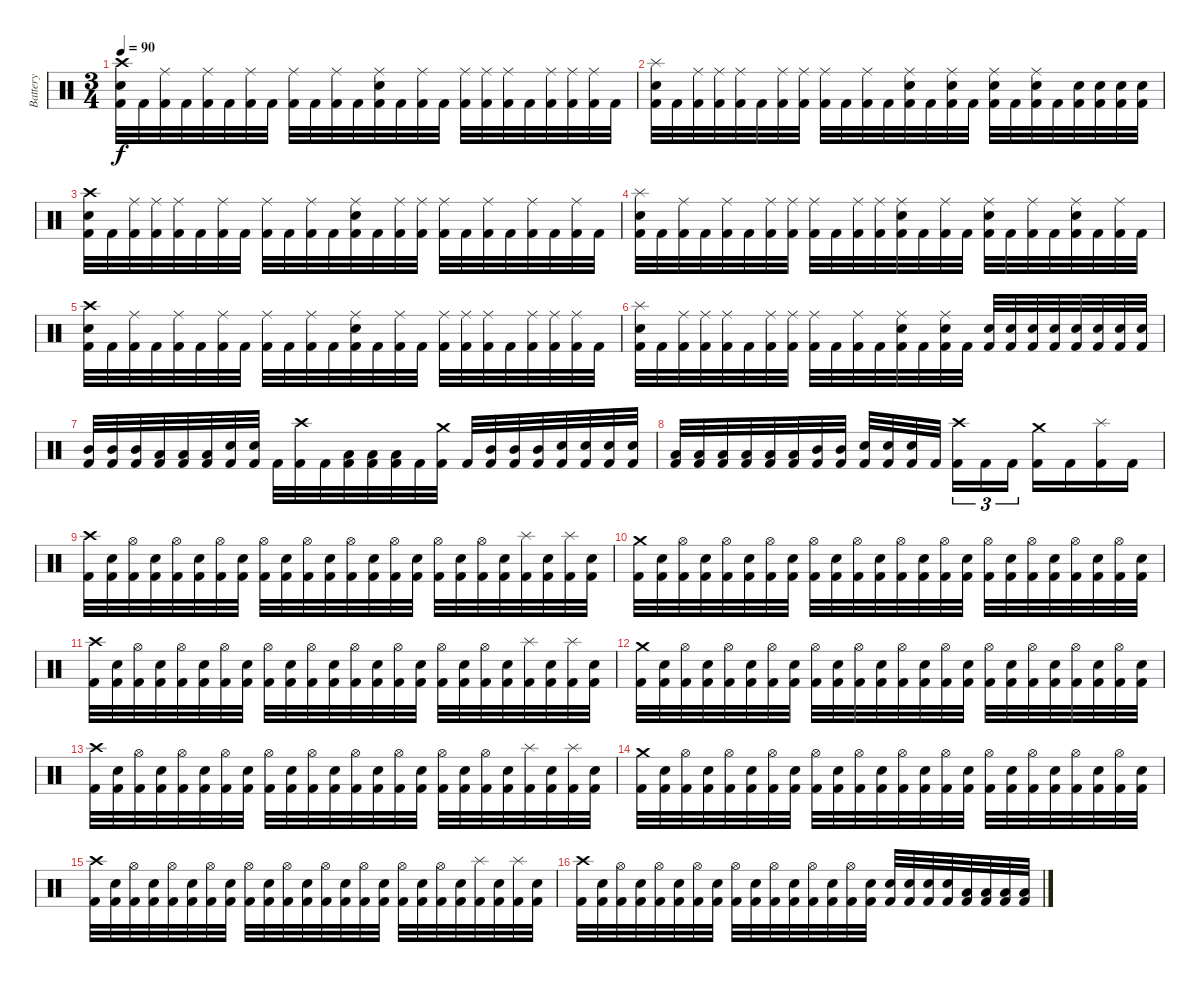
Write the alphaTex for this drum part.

\track ("Battery" "Battery") {instrument percussion}
\staff {score}
\articulation defaults
\ts (3 4)
\tempo 90
\clef neutral
\ks c
("Kick (hit) 2" "Snare (hit) 2" "Crash high (hit)").32{dy f} "Kick (hit) 2".32 ("Kick (hit) 2" "Ride (middle)").32 "Kick (hit) 2".32 ("Kick (hit) 2" "Ride (middle)").32 "Kick (hit) 2".32 ("Kick (hit) 2" "Ride (middle)").32 "Kick (hit) 2".32 ("Kick (hit) 2" "Ride (middle)").32 "Kick (hit) 2".32 ("Kick (hit) 2" "Ride (middle)").32 "Kick (hit) 2".32 ("Kick (hit) 2" "Snare (hit) 2" "Ride (middle)").32 "Kick (hit) 2".32 ("Kick (hit) 2" "Ride (middle)").32 "Kick (hit) 2".32 ("Kick (hit) 2" "Ride (middle)").32 ("Kick (hit) 2" "Ride (middle)").32 ("Kick (hit) 2" "Ride (middle)").32 "Kick (hit) 2".32 ("Kick (hit) 2" "Ride (middle)").32 ("Kick (hit) 2" "Ride (middle)").32 ("Kick (hit) 2" "Ride (middle)").32 "Kick (hit) 2".32 |
("Kick (hit) 2" "Snare (hit) 2" "Splash (hit)").32 "Kick (hit) 2".32 ("Kick (hit) 2" "Ride (middle)").32 ("Kick (hit) 2" "Ride (middle)").32 ("Kick (hit) 2" "Ride (middle)").32 "Kick (hit) 2".32 ("Kick (hit) 2" "Ride (middle)").32 ("Kick (hit) 2" "Ride (middle)").32 ("Kick (hit) 2" "Ride (middle)").32 "Kick (hit) 2".32 ("Kick (hit) 2" "Ride (middle)").32 "Kick (hit) 2".32 ("Kick (hit) 2" "Snare (hit) 2" "Ride (middle)").32 "Kick (hit) 2".32 ("Kick (hit) 2" "Snare (hit) 2" "Ride (middle)").32 "Kick (hit) 2".32 ("Kick (hit) 2" "Snare (hit) 2" "Ride (middle)").32 "Kick (hit) 2".32 ("Kick (hit) 2" "Snare (hit) 2" "Ride (middle)").32 "Kick (hit) 2".32 ("Kick (hit) 2" "Snare (hit) 2").32 ("Kick (hit) 2" "Snare (hit) 2").32 ("Kick (hit) 2" "Snare (hit) 2").32 ("Kick (hit) 2" "Snare (hit) 2").32 |
("Kick (hit) 2" "Snare (hit) 2" "Crash high (hit)").32 "Kick (hit) 2".32 ("Kick (hit) 2" "Ride (middle)").32 ("Kick (hit) 2" "Ride (middle)").32 ("Kick (hit) 2" "Ride (middle)").32 "Kick (hit) 2".32 ("Kick (hit) 2" "Ride (middle)").32 "Kick (hit) 2".32 ("Kick (hit) 2" "Ride (middle)").32 "Kick (hit) 2".32 ("Kick (hit) 2" "Ride (middle)").32 "Kick (hit) 2".32 ("Kick (hit) 2" "Snare (hit) 2" "Ride (middle)").32 "Kick (hit) 2".32 ("Kick (hit) 2" "Ride (middle)").32 ("Kick (hit) 2" "Ride (middle)").32 ("Kick (hit) 2" "Ride (middle)").32 "Kick (hit) 2".32 ("Kick (hit) 2" "Ride (middle)").32 "Kick (hit) 2".32 ("Kick (hit) 2" "Ride (middle)").32 "Kick (hit) 2".32 ("Kick (hit) 2" "Ride (middle)").32 "Kick (hit) 2".32 |
("Kick (hit) 2" "Snare (hit) 2" "Splash (hit)").32 "Kick (hit) 2".32 ("Kick (hit) 2" "Ride (middle)").32 "Kick (hit) 2".32 ("Kick (hit) 2" "Ride (middle)").32 "Kick (hit) 2".32 ("Kick (hit) 2" "Ride (middle)").32 ("Kick (hit) 2" "Ride (middle)").32 ("Kick (hit) 2" "Ride (middle)").32 "Kick (hit) 2".32 ("Kick (hit) 2" "Ride (middle)").32 ("Kick (hit) 2" "Ride (middle)").32 ("Kick (hit) 2" "Snare (hit) 2" "Ride (middle)").32 "Kick (hit) 2".32 ("Kick (hit) 2" "Ride (middle)").32 "Kick (hit) 2".32 ("Kick (hit) 2" "Snare (hit) 2" "Ride (middle)").32 "Kick (hit) 2".32 ("Kick (hit) 2" "Ride (middle)").32 "Kick (hit) 2".32 ("Kick (hit) 2" "Snare (hit) 2" "Ride (middle)").32 "Kick (hit) 2".32 ("Kick (hit) 2" "Ride (middle)").32 "Kick (hit) 2".32 |
("Kick (hit) 2" "Snare (hit) 2" "Crash high (hit)").32 "Kick (hit) 2".32 ("Kick (hit) 2" "Ride (middle)").32 "Kick (hit) 2".32 ("Kick (hit) 2" "Ride (middle)").32 "Kick (hit) 2".32 ("Kick (hit) 2" "Ride (middle)").32 "Kick (hit) 2".32 ("Kick (hit) 2" "Ride (middle)").32 "Kick (hit) 2".32 ("Kick (hit) 2" "Ride (middle)").32 "Kick (hit) 2".32 ("Kick (hit) 2" "Snare (hit) 2" "Ride (middle)").32 "Kick (hit) 2".32 ("Kick (hit) 2" "Ride (middle)").32 "Kick (hit) 2".32 ("Kick (hit) 2" "Ride (middle)").32 ("Kick (hit) 2" "Ride (middle)").32 ("Kick (hit) 2" "Ride (middle)").32 "Kick (hit) 2".32 ("Kick (hit) 2" "Ride (middle)").32 ("Kick (hit) 2" "Ride (middle)").32 ("Kick (hit) 2" "Ride (middle)").32 "Kick (hit) 2".32 |
("Kick (hit) 2" "Snare (hit) 2" "Splash (hit)").32 "Kick (hit) 2".32 ("Kick (hit) 2" "Ride (middle)").32 ("Kick (hit) 2" "Ride (middle)").32 ("Kick (hit) 2" "Ride (middle)").32 "Kick (hit) 2".32 ("Kick (hit) 2" "Ride (middle)").32 ("Kick (hit) 2" "Ride (middle)").32 ("Kick (hit) 2" "Ride (middle)").32 "Kick (hit) 2".32 ("Kick (hit) 2" "Ride (middle)").32 "Kick (hit) 2".32 ("Kick (hit) 2" "Snare (hit) 2" "Ride (middle)").32 "Kick (hit) 2".32 ("Kick (hit) 2" "Snare (hit) 2" "Ride (middle)").32 "Kick (hit) 2".32 ("Kick (hit) 2" "Snare (hit) 2").32 ("Kick (hit) 2" "Snare (hit) 2").32 ("Kick (hit) 2" "Snare (hit) 2").32 ("Kick (hit) 2" "Snare (hit) 2").32 ("Kick (hit) 2" "Snare (hit) 2").32 ("Kick (hit) 2" "Snare (hit) 2").32 ("Kick (hit) 2" "Snare (hit) 2").32 ("Kick (hit) 2" "Snare (hit) 2").32 |
("Kick (hit) 2" "Mid Tom (hit)").32 ("Kick (hit) 2" "Mid Tom (hit)").32 ("Kick (hit) 2" "Mid Tom (hit)").32 ("Kick (hit) 2" "Low Tom (hit)").32 ("Kick (hit) 2" "Low Tom (hit)").32 ("Kick (hit) 2" "Low Tom (hit)").32 ("Kick (hit) 2" "Snare (hit) 2").32 ("Kick (hit) 2" "Snare (hit) 2").32 "Kick (hit) 2".32 ("Kick (hit) 2" "Crash high (hit)").32 "Kick (hit) 2".32 ("Kick (hit) 2" "Low Tom (hit)").32 ("Kick (hit) 2" "Low Tom (hit)").32 ("Kick (hit) 2" "Low Tom (hit)").32 "Kick (hit) 2".32 ("Kick (hit) 2" "Crash medium (hit)").32 "Kick (hit) 2".32 ("Kick (hit) 2" "Mid Tom (hit)").32 ("Kick (hit) 2" "Mid Tom (hit)").32 ("Kick (hit) 2" "Mid Tom (hit)").32 ("Kick (hit) 2" "Snare (hit) 2").32 ("Kick (hit) 2" "Snare (hit) 2").32 ("Kick (hit) 2" "Snare (hit) 2").32 ("Kick (hit) 2" "Snare (hit) 2").32 |
("Kick (hit) 2" "Low Tom (hit)").32 ("Kick (hit) 2" "Low Tom (hit)").32 ("Kick (hit) 2" "Low Tom (hit)").32 ("Kick (hit) 2" "Low Tom (hit)").32 ("Kick (hit) 2" "Low Tom (hit)").32 ("Kick (hit) 2" "Low Tom (hit)").32 ("Kick (hit) 2" "Mid Tom (hit)").32 ("Kick (hit) 2" "Mid Tom (hit)").32 ("Kick (hit) 2" "Snare (hit) 2").32 ("Kick (hit) 2" "Snare (hit) 2").32 ("Kick (hit) 2" "Snare (hit) 2").32 "Kick (hit) 2".32 ("Kick (hit) 2" "Crash high (hit)").16{tu (3 2)} "Kick (hit) 2".16{tu (3 2)} "Kick (hit) 2".16{tu (3 2)} ("Kick (hit) 2" "Crash medium (hit)").16 "Kick (hit) 2".16 ("Kick (hit) 2" "Splash (hit)").16 "Kick (hit) 2".16 |
("Kick (hit) 2" "Crash high (hit)").32 ("Kick (hit) 2" "Snare (hit) 2").32 ("Kick (hit) 2" "Hi-Hat (open)").32 ("Kick (hit) 2" "Snare (hit) 2").32 ("Kick (hit) 2" "Hi-Hat (open)").32 ("Kick (hit) 2" "Snare (hit) 2").32 ("Kick (hit) 2" "Hi-Hat (open)").32 ("Kick (hit) 2" "Snare (hit) 2").32 ("Kick (hit) 2" "Hi-Hat (open)").32 ("Kick (hit) 2" "Snare (hit) 2").32 ("Kick (hit) 2" "Hi-Hat (open)").32 ("Kick (hit) 2" "Snare (hit) 2").32 ("Kick (hit) 2" "Hi-Hat (open)").32 ("Kick (hit) 2" "Snare (hit) 2").32 ("Kick (hit) 2" "Hi-Hat (open)").32 ("Kick (hit) 2" "Snare (hit) 2").32 ("Kick (hit) 2" "Hi-Hat (open)").32 ("Kick (hit) 2" "Snare (hit) 2").32 ("Kick (hit) 2" "Hi-Hat (open)").32 ("Kick (hit) 2" "Snare (hit) 2").32 ("Kick (hit) 2" "Splash (hit)").32 ("Kick (hit) 2" "Snare (hit) 2").32 ("Kick (hit) 2" "Splash (hit)").32 ("Kick (hit) 2" "Snare (hit) 2").32 |
("Kick (hit) 2" "Crash medium (hit)").32 ("Kick (hit) 2" "Snare (hit) 2").32 ("Kick (hit) 2" "Hi-Hat (open)").32 ("Kick (hit) 2" "Snare (hit) 2").32 ("Kick (hit) 2" "Hi-Hat (open)").32 ("Kick (hit) 2" "Snare (hit) 2").32 ("Kick (hit) 2" "Hi-Hat (open)").32 ("Kick (hit) 2" "Snare (hit) 2").32 ("Kick (hit) 2" "Hi-Hat (open)").32 ("Kick (hit) 2" "Snare (hit) 2").32 ("Kick (hit) 2" "Hi-Hat (open)").32 ("Kick (hit) 2" "Snare (hit) 2").32 ("Kick (hit) 2" "Hi-Hat (open)").32 ("Kick (hit) 2" "Snare (hit) 2").32 ("Kick (hit) 2" "Hi-Hat (open)").32 ("Kick (hit) 2" "Snare (hit) 2").32 ("Kick (hit) 2" "Hi-Hat (open)").32 ("Kick (hit) 2" "Snare (hit) 2").32 ("Kick (hit) 2" "Hi-Hat (open)").32 ("Kick (hit) 2" "Snare (hit) 2").32 ("Kick (hit) 2" "Hi-Hat (open)").32 ("Kick (hit) 2" "Snare (hit) 2").32 ("Kick (hit) 2" "Hi-Hat (open)").32 ("Kick (hit) 2" "Snare (hit) 2").32 |
("Kick (hit) 2" "Crash high (hit)").32 ("Kick (hit) 2" "Snare (hit) 2").32 ("Kick (hit) 2" "Hi-Hat (open)").32 ("Kick (hit) 2" "Snare (hit) 2").32 ("Kick (hit) 2" "Hi-Hat (open)").32 ("Kick (hit) 2" "Snare (hit) 2").32 ("Kick (hit) 2" "Hi-Hat (open)").32 ("Kick (hit) 2" "Snare (hit) 2").32 ("Kick (hit) 2" "Hi-Hat (open)").32 ("Kick (hit) 2" "Snare (hit) 2").32 ("Kick (hit) 2" "Hi-Hat (open)").32 ("Kick (hit) 2" "Snare (hit) 2").32 ("Kick (hit) 2" "Hi-Hat (open)").32 ("Kick (hit) 2" "Snare (hit) 2").32 ("Kick (hit) 2" "Hi-Hat (open)").32 ("Kick (hit) 2" "Snare (hit) 2").32 ("Kick (hit) 2" "Hi-Hat (open)").32 ("Kick (hit) 2" "Snare (hit) 2").32 ("Kick (hit) 2" "Hi-Hat (open)").32 ("Kick (hit) 2" "Snare (hit) 2").32 ("Kick (hit) 2" "Splash (hit)").32 ("Kick (hit) 2" "Snare (hit) 2").32 ("Kick (hit) 2" "Splash (hit)").32 ("Kick (hit) 2" "Snare (hit) 2").32 |
("Kick (hit) 2" "Crash medium (hit)").32 ("Kick (hit) 2" "Snare (hit) 2").32 ("Kick (hit) 2" "Hi-Hat (open)").32 ("Kick (hit) 2" "Snare (hit) 2").32 ("Kick (hit) 2" "Hi-Hat (open)").32 ("Kick (hit) 2" "Snare (hit) 2").32 ("Kick (hit) 2" "Hi-Hat (open)").32 ("Kick (hit) 2" "Snare (hit) 2").32 ("Kick (hit) 2" "Hi-Hat (open)").32 ("Kick (hit) 2" "Snare (hit) 2").32 ("Kick (hit) 2" "Hi-Hat (open)").32 ("Kick (hit) 2" "Snare (hit) 2").32 ("Kick (hit) 2" "Hi-Hat (open)").32 ("Kick (hit) 2" "Snare (hit) 2").32 ("Kick (hit) 2" "Hi-Hat (open)").32 ("Kick (hit) 2" "Snare (hit) 2").32 ("Kick (hit) 2" "Hi-Hat (open)").32 ("Kick (hit) 2" "Snare (hit) 2").32 ("Kick (hit) 2" "Hi-Hat (open)").32 ("Kick (hit) 2" "Snare (hit) 2").32 ("Kick (hit) 2" "Hi-Hat (open)").32 ("Kick (hit) 2" "Snare (hit) 2").32 ("Kick (hit) 2" "Hi-Hat (open)").32 ("Kick (hit) 2" "Snare (hit) 2").32 |
("Kick (hit) 2" "Crash high (hit)").32 ("Kick (hit) 2" "Snare (hit) 2").32 ("Kick (hit) 2" "Hi-Hat (open)").32 ("Kick (hit) 2" "Snare (hit) 2").32 ("Kick (hit) 2" "Hi-Hat (open)").32 ("Kick (hit) 2" "Snare (hit) 2").32 ("Kick (hit) 2" "Hi-Hat (open)").32 ("Kick (hit) 2" "Snare (hit) 2").32 ("Kick (hit) 2" "Hi-Hat (open)").32 ("Kick (hit) 2" "Snare (hit) 2").32 ("Kick (hit) 2" "Hi-Hat (open)").32 ("Kick (hit) 2" "Snare (hit) 2").32 ("Kick (hit) 2" "Hi-Hat (open)").32 ("Kick (hit) 2" "Snare (hit) 2").32 ("Kick (hit) 2" "Hi-Hat (open)").32 ("Kick (hit) 2" "Snare (hit) 2").32 ("Kick (hit) 2" "Hi-Hat (open)").32 ("Kick (hit) 2" "Snare (hit) 2").32 ("Kick (hit) 2" "Hi-Hat (open)").32 ("Kick (hit) 2" "Snare (hit) 2").32 ("Kick (hit) 2" "Splash (hit)").32 ("Kick (hit) 2" "Snare (hit) 2").32 ("Kick (hit) 2" "Splash (hit)").32 ("Kick (hit) 2" "Snare (hit) 2").32 |
("Kick (hit) 2" "Crash medium (hit)").32 ("Kick (hit) 2" "Snare (hit) 2").32 ("Kick (hit) 2" "Hi-Hat (open)").32 ("Kick (hit) 2" "Snare (hit) 2").32 ("Kick (hit) 2" "Hi-Hat (open)").32 ("Kick (hit) 2" "Snare (hit) 2").32 ("Kick (hit) 2" "Hi-Hat (open)").32 ("Kick (hit) 2" "Snare (hit) 2").32 ("Kick (hit) 2" "Hi-Hat (open)").32 ("Kick (hit) 2" "Snare (hit) 2").32 ("Kick (hit) 2" "Hi-Hat (open)").32 ("Kick (hit) 2" "Snare (hit) 2").32 ("Kick (hit) 2" "Hi-Hat (open)").32 ("Kick (hit) 2" "Snare (hit) 2").32 ("Kick (hit) 2" "Hi-Hat (open)").32 ("Kick (hit) 2" "Snare (hit) 2").32 ("Kick (hit) 2" "Hi-Hat (open)").32 ("Kick (hit) 2" "Snare (hit) 2").32 ("Kick (hit) 2" "Hi-Hat (open)").32 ("Kick (hit) 2" "Snare (hit) 2").32 ("Kick (hit) 2" "Hi-Hat (open)").32 ("Kick (hit) 2" "Snare (hit) 2").32 ("Kick (hit) 2" "Hi-Hat (open)").32 ("Kick (hit) 2" "Snare (hit) 2").32 |
("Kick (hit) 2" "Crash high (hit)").32 ("Kick (hit) 2" "Snare (hit) 2").32 ("Kick (hit) 2" "Hi-Hat (open)").32 ("Kick (hit) 2" "Snare (hit) 2").32 ("Kick (hit) 2" "Hi-Hat (open)").32 ("Kick (hit) 2" "Snare (hit) 2").32 ("Kick (hit) 2" "Hi-Hat (open)").32 ("Kick (hit) 2" "Snare (hit) 2").32 ("Kick (hit) 2" "Hi-Hat (open)").32 ("Kick (hit) 2" "Snare (hit) 2").32 ("Kick (hit) 2" "Hi-Hat (open)").32 ("Kick (hit) 2" "Snare (hit) 2").32 ("Kick (hit) 2" "Hi-Hat (open)").32 ("Kick (hit) 2" "Snare (hit) 2").32 ("Kick (hit) 2" "Hi-Hat (open)").32 ("Kick (hit) 2" "Snare (hit) 2").32 ("Kick (hit) 2" "Hi-Hat (open)").32 ("Kick (hit) 2" "Snare (hit) 2").32 ("Kick (hit) 2" "Hi-Hat (open)").32 ("Kick (hit) 2" "Snare (hit) 2").32 ("Kick (hit) 2" "Splash (hit)").32 ("Kick (hit) 2" "Snare (hit) 2").32 ("Kick (hit) 2" "Splash (hit)").32 ("Kick (hit) 2" "Snare (hit) 2").32 |
("Kick (hit) 2" "Crash high (hit)").32 ("Kick (hit) 2" "Snare (hit) 2").32 ("Kick (hit) 2" "Hi-Hat (open)").32 ("Kick (hit) 2" "Snare (hit) 2").32 ("Kick (hit) 2" "Hi-Hat (open)").32 ("Kick (hit) 2" "Snare (hit) 2").32 ("Kick (hit) 2" "Hi-Hat (open)").32 ("Kick (hit) 2" "Snare (hit) 2").32 ("Kick (hit) 2" "Hi-Hat (open)").32 ("Kick (hit) 2" "Snare (hit) 2").32 ("Kick (hit) 2" "Hi-Hat (open)").32 ("Kick (hit) 2" "Snare (hit) 2").32 ("Kick (hit) 2" "Hi-Hat (open)").32 ("Kick (hit) 2" "Snare (hit) 2").32 ("Kick (hit) 2" "Hi-Hat (open)").32 ("Kick (hit) 2" "Snare (hit) 2").32 ("Kick (hit) 2" "Snare (hit) 2").32 ("Kick (hit) 2" "Snare (hit) 2").32 ("Kick (hit) 2" "Snare (hit) 2").32 ("Kick (hit) 2" "Snare (hit) 2").32 ("Kick (hit) 2" "Low Tom (hit)").32 ("Kick (hit) 2" "Low Tom (hit)").32 ("Kick (hit) 2" "Low Tom (hit)").32 ("Kick (hit) 2" "Low Tom (hit)").32
